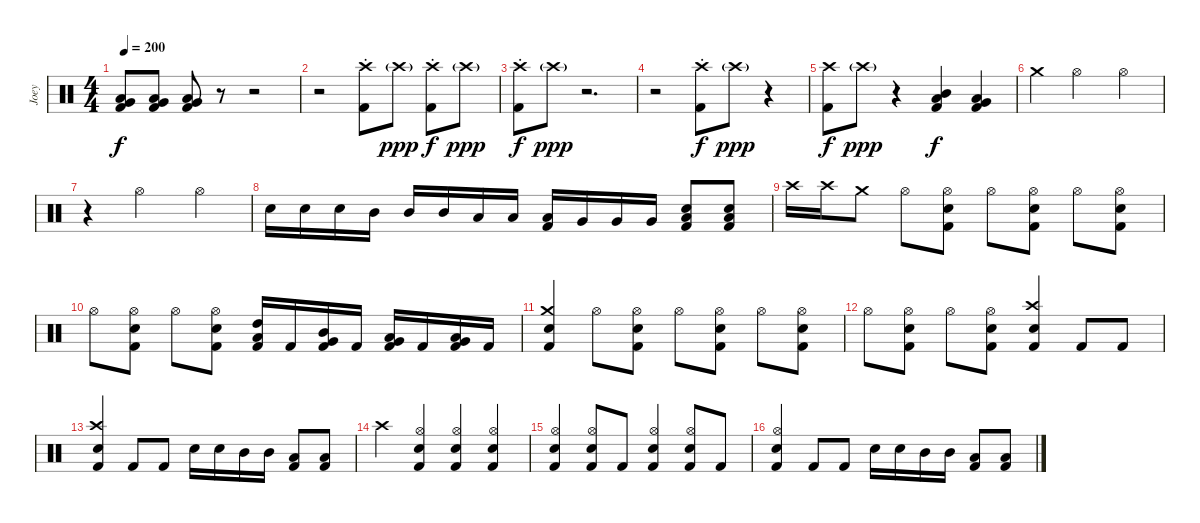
\track ("Joey" "Joey") {instrument percussion}
\staff {score}
\articulation defaults
\ts (4 4)
\tempo 200
\clef neutral
\ks c
("Very Low Tom (hit)" "Low Tom (hit)" "Kick (hit) 2").8{dy f} ("Very Low Tom (hit)" "Low Tom (hit)" "Kick (hit) 2").8 ("Very Low Tom (hit)" "Low Tom (hit)" "Kick (hit) 2").8 r.8 r.2 |
r.2 ("Crash high (hit)"{st} "Kick (hit) 2").8 "Crash high (hit)"{g}.8{dy ppp} ("Crash high (hit)"{st} "Kick (hit) 2").8{dy f} "Crash high (hit)"{g}.8{dy ppp} |
("Crash high (hit)"{st} "Kick (hit) 2").8{dy f} "Crash high (hit)"{g}.8{dy ppp} r.2{d} |
r.2 ("Crash high (hit)"{st} "Kick (hit) 2").8{dy f} "Crash high (hit)"{g}.8{dy ppp} r.4 |
("Crash high (hit)" "Kick (hit) 2").8{dy f} "Crash high (hit)"{g}.8{dy ppp} r.4 ("Mid Tom (hit)" "Low Tom (hit)" "Kick (hit) 2").4{dy f} ("Low Tom (hit)" "Very Low Tom (hit)" "Kick (hit) 2").4 |
"Crash medium (hit)".4 "Hi-Hat (open)".2 "Hi-Hat (open)".4 |
r.4 "Hi-Hat (open)".2 "Hi-Hat (open)".4 |
"Electric Snare (hit)".16 "Electric Snare (hit)".16 "Electric Snare (hit)".16 "Mid Tom (hit)".16 "Mid Tom (hit)".16 "Mid Tom (hit)".16 "Low Tom (hit)".16 "Low Tom (hit)".16 ("Low Tom (hit)" "Kick (hit) 2").16 "Very Low Tom (hit)".16 "Very Low Tom (hit)".16 "Very Low Tom (hit)".16 ("Low Floor Tom (hit)" "Electric Snare (hit)" "Kick (hit) 2").8 ("Low Floor Tom (hit)" "Electric Snare (hit)" "Kick (hit) 2").8 |
"Crash high (hit)".16 "Crash high (hit)".16 "Crash medium (hit)".8 "Hi-Hat (open)".8 ("Hi-Hat (open)" "Electric Snare (hit)" "Kick (hit) 2").8 "Hi-Hat (open)".8 ("Hi-Hat (open)" "Electric Snare (hit)" "Kick (hit) 2").8 "Hi-Hat (open)".8 ("Hi-Hat (open)" "Electric Snare (hit)" "Kick (hit) 2").8 |
"Hi-Hat (open)".8 ("Hi-Hat (open)" "Electric Snare (hit)" "Kick (hit) 2").8 "Hi-Hat (open)".8 ("Hi-Hat (open)" "Electric Snare (hit)" "Kick (hit) 2").8 ("Low Tom (hit)" "High Tom (hit)" "Kick (hit) 2").16 "Kick (hit) 2".16 ("Very Low Tom (hit)" "Mid Tom (hit)" "Kick (hit) 2").16 "Kick (hit) 2".16 ("Low Floor Tom (hit)" "Very Low Tom (hit)" "Kick (hit) 2").16 "Kick (hit) 2".16 ("Low Floor Tom (hit)" "Very Low Tom (hit)" "Kick (hit) 2").16 "Kick (hit) 2".16 |
("Crash medium (hit)" "Electric Snare (hit)" "Kick (hit) 2").4 "Hi-Hat (open)".8 ("Hi-Hat (open)" "Electric Snare (hit)" "Kick (hit) 2").8 "Hi-Hat (open)".8 ("Hi-Hat (open)" "Electric Snare (hit)" "Kick (hit) 2").8 "Hi-Hat (open)".8 ("Hi-Hat (open)" "Electric Snare (hit)" "Kick (hit) 2").8 |
"Hi-Hat (open)".8 ("Hi-Hat (open)" "Electric Snare (hit)" "Kick (hit) 2").8 "Hi-Hat (open)".8 ("Hi-Hat (open)" "Electric Snare (hit)" "Kick (hit) 2").8 ("Crash high (hit)" "Electric Snare (hit)" "Kick (hit) 2").4 "Kick (hit) 2".8 "Kick (hit) 2".8 |
("Crash high (hit)" "Electric Snare (hit)" "Kick (hit) 2").4 "Kick (hit) 2".8 "Kick (hit) 2".8 "Electric Snare (hit)".16 "Electric Snare (hit)".16 "Mid Tom (hit)".16 "Mid Tom (hit)".16 ("Low Tom (hit)" "Kick (hit) 2").8 ("Low Tom (hit)" "Kick (hit) 2").8 |
"Crash high (hit)".4 ("Hi-Hat (open)" "Electric Snare (hit)" "Kick (hit) 2").4 ("Hi-Hat (open)" "Electric Snare (hit)" "Kick (hit) 2").4 ("Hi-Hat (open)" "Electric Snare (hit)" "Kick (hit) 2").4 |
("Hi-Hat (open)" "Electric Snare (hit)" "Kick (hit) 2").4 ("Hi-Hat (open)" "Electric Snare (hit)" "Kick (hit) 2").8 "Kick (hit) 2".8 ("Hi-Hat (open)" "Electric Snare (hit)" "Kick (hit) 2").4 ("Hi-Hat (open)" "Electric Snare (hit)" "Kick (hit) 2").8 "Kick (hit) 2".8 |
("Hi-Hat (open)" "Electric Snare (hit)" "Kick (hit) 2").4 "Kick (hit) 2".8 "Kick (hit) 2".8 "Electric Snare (hit)".16 "Electric Snare (hit)".16 "Mid Tom (hit)".16 "Mid Tom (hit)".16 ("Low Tom (hit)" "Kick (hit) 2").8 ("Low Tom (hit)" "Kick (hit) 2").8
